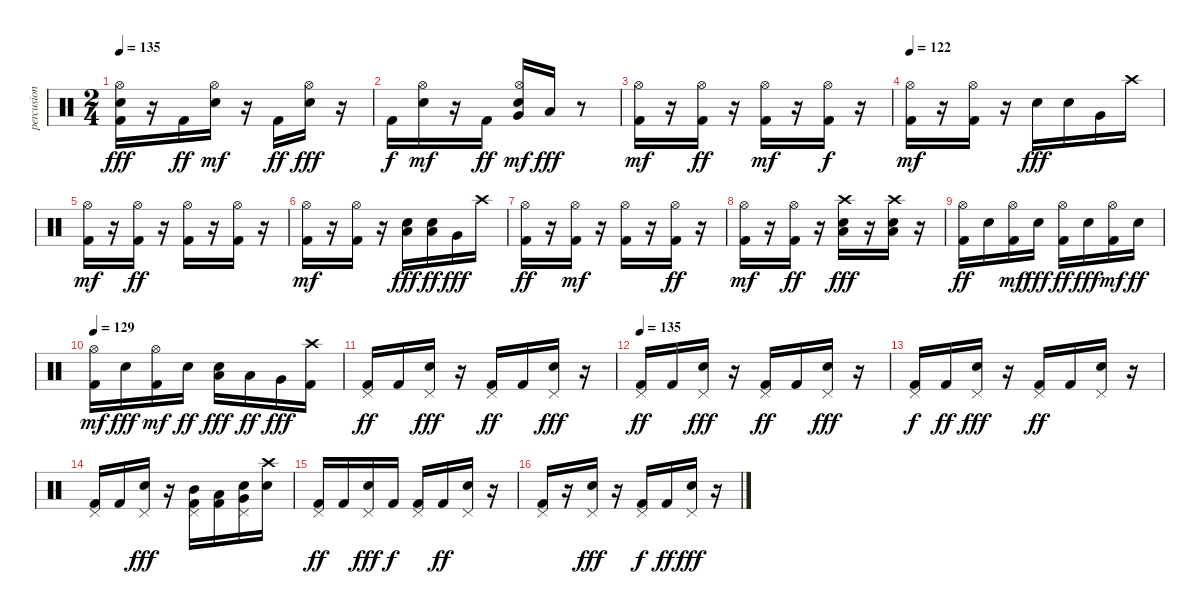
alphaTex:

\track ("percusion" "percusion") {instrument percussion}
\staff {score}
\articulation defaults
\ts (2 4)
\tempo 135
\clef neutral
\ks c
("Kick (hit) 2" "Electric Snare (hit)" "Hi-Hat (open)").16{dy fff} r.16 "Kick (hit) 2".16{dy ff} ("Electric Snare (hit)" "Hi-Hat (open)").16{dy mf} r.16 "Kick (hit) 2".16{dy ff} ("Electric Snare (hit)" "Hi-Hat (open)").16{dy fff} r.16 |
"Kick (hit) 2".16{dy f} ("Electric Snare (hit)" "Hi-Hat (open)").16{dy mf} r.16 "Kick (hit) 2".16{dy ff} ("Electric Snare (hit)" "Very Low Tom (hit)" "Hi-Hat (open)").16{dy mf} "Low Floor Tom (hit)".16{dy fff} r.8 |
("Kick (hit) 2" "Hi-Hat (open)").16{dy mf} r.16 ("Kick (hit) 2" "Hi-Hat (open)").16{dy ff} r.16 ("Kick (hit) 2" "Hi-Hat (open)").16{dy mf} r.16 ("Kick (hit) 2" "Hi-Hat (open)").16{dy f} r.16 |
\tempo 122
("Kick (hit) 2" "Hi-Hat (open)").16{dy mf} r.16 ("Kick (hit) 2" "Hi-Hat (open)").16 r.16 "Electric Snare (hit)".16{dy fff} "Electric Snare (hit)".16 "Very Low Tom (hit)".16 "Crash high (hit)".16 |
("Kick (hit) 2" "Hi-Hat (open)").16{dy mf} r.16 ("Kick (hit) 2" "Hi-Hat (open)").16{dy ff} r.16 ("Kick (hit) 2" "Hi-Hat (open)").16 r.16 ("Kick (hit) 2" "Hi-Hat (open)").16 r.16 |
("Kick (hit) 2" "Hi-Hat (open)").16{dy mf} r.16 ("Kick (hit) 2" "Hi-Hat (open)").16 r.16 ("Electric Snare (hit)" "Low Floor Tom (hit)").16{dy fff} ("Electric Snare (hit)" "Low Floor Tom (hit)").16{dy ff} "Very Low Tom (hit)".16{dy fff} "Crash high (hit)".16 |
("Kick (hit) 2" "Hi-Hat (open)").16{dy ff} r.16 ("Kick (hit) 2" "Hi-Hat (open)").16{dy mf} r.16 ("Kick (hit) 2" "Hi-Hat (open)").16 r.16 ("Kick (hit) 2" "Hi-Hat (open)").16{dy ff} r.16 |
("Kick (hit) 2" "Hi-Hat (open)").16{dy mf} r.16 ("Kick (hit) 2" "Hi-Hat (open)").16{dy ff} r.16 ("Electric Snare (hit)" "Crash high (hit)" "Low Floor Tom (hit)").16{dy fff} r.16 ("Electric Snare (hit)" "Crash high (hit)" "Low Floor Tom (hit)").16 r.16 |
("Kick (hit) 2" "Hi-Hat (open)").16{dy ff} "Electric Snare (hit)".16 ("Kick (hit) 2" "Hi-Hat (open)").16{dy mf} "Electric Snare (hit)".16{dy fff} ("Kick (hit) 2" "Hi-Hat (open)").16{dy ff} "Electric Snare (hit)".16{dy fff} ("Kick (hit) 2" "Hi-Hat (open)").16{dy mf} "Electric Snare (hit)".16{dy ff} |
\tempo 129
("Kick (hit) 2" "Hi-Hat (open)").16{dy mf} "Electric Snare (hit)".16{dy fff} ("Kick (hit) 2" "Hi-Hat (open)").16{dy mf} "Electric Snare (hit)".16{dy ff} ("Electric Snare (hit)" "Low Floor Tom (hit)").16{dy fff} "Low Floor Tom (hit)".16{dy ff} "Very Low Tom (hit)".16{dy fff} ("Kick (hit) 2" "Crash high (hit)").16 |
("Kick (hit) 2" "Pedal Hi-Hat (hit)").16{dy ff} "Kick (hit) 2".16 ("Electric Snare (hit)" "Pedal Hi-Hat (hit)").16{dy fff} r.16 ("Kick (hit) 2" "Pedal Hi-Hat (hit)").16{dy ff} "Kick (hit) 2".16 ("Electric Snare (hit)" "Pedal Hi-Hat (hit)").16{dy fff} r.16 |
\tempo 135
("Kick (hit) 2" "Pedal Hi-Hat (hit)").16{dy ff} "Kick (hit) 2".16 ("Electric Snare (hit)" "Pedal Hi-Hat (hit)").16{dy fff} r.16 ("Kick (hit) 2" "Pedal Hi-Hat (hit)").16{dy ff} "Kick (hit) 2".16 ("Electric Snare (hit)" "Pedal Hi-Hat (hit)").16{dy fff} r.16 |
("Kick (hit) 2" "Pedal Hi-Hat (hit)").16{dy f} "Kick (hit) 2".16{dy ff} ("Electric Snare (hit)" "Pedal Hi-Hat (hit)").16{dy fff} r.16 ("Kick (hit) 2" "Pedal Hi-Hat (hit)").16{dy ff} "Kick (hit) 2".16 ("Electric Snare (hit)" "Pedal Hi-Hat (hit)").16 r.16 |
("Kick (hit) 2" "Pedal Hi-Hat (hit)").16 "Kick (hit) 2".16 ("Electric Snare (hit)" "Pedal Hi-Hat (hit)").16{dy fff} r.16 ("Kick (hit) 2" "Mid Tom (hit)" "Pedal Hi-Hat (hit)").16 ("Kick (hit) 2" "Low Tom (hit)").16 ("Electric Snare (hit)" "Very Low Tom (hit)" "Pedal Hi-Hat (hit)").16 ("Electric Snare (hit)" "Crash high (hit)").16 |
("Kick (hit) 2" "Pedal Hi-Hat (hit)").16{dy ff} "Kick (hit) 2".16 ("Electric Snare (hit)" "Pedal Hi-Hat (hit)").16{dy fff} "Kick (hit) 2".16{dy f} ("Kick (hit) 2" "Pedal Hi-Hat (hit)").16 "Kick (hit) 2".16{dy ff} ("Electric Snare (hit)" "Pedal Hi-Hat (hit)").16 r.16 |
("Kick (hit) 2" "Pedal Hi-Hat (hit)").16 r.16 ("Electric Snare (hit)" "Pedal Hi-Hat (hit)").16{dy fff} r.16 ("Kick (hit) 2" "Pedal Hi-Hat (hit)").16{dy f} "Kick (hit) 2".16{dy ff} ("Electric Snare (hit)" "Pedal Hi-Hat (hit)").16{dy fff} r.16
